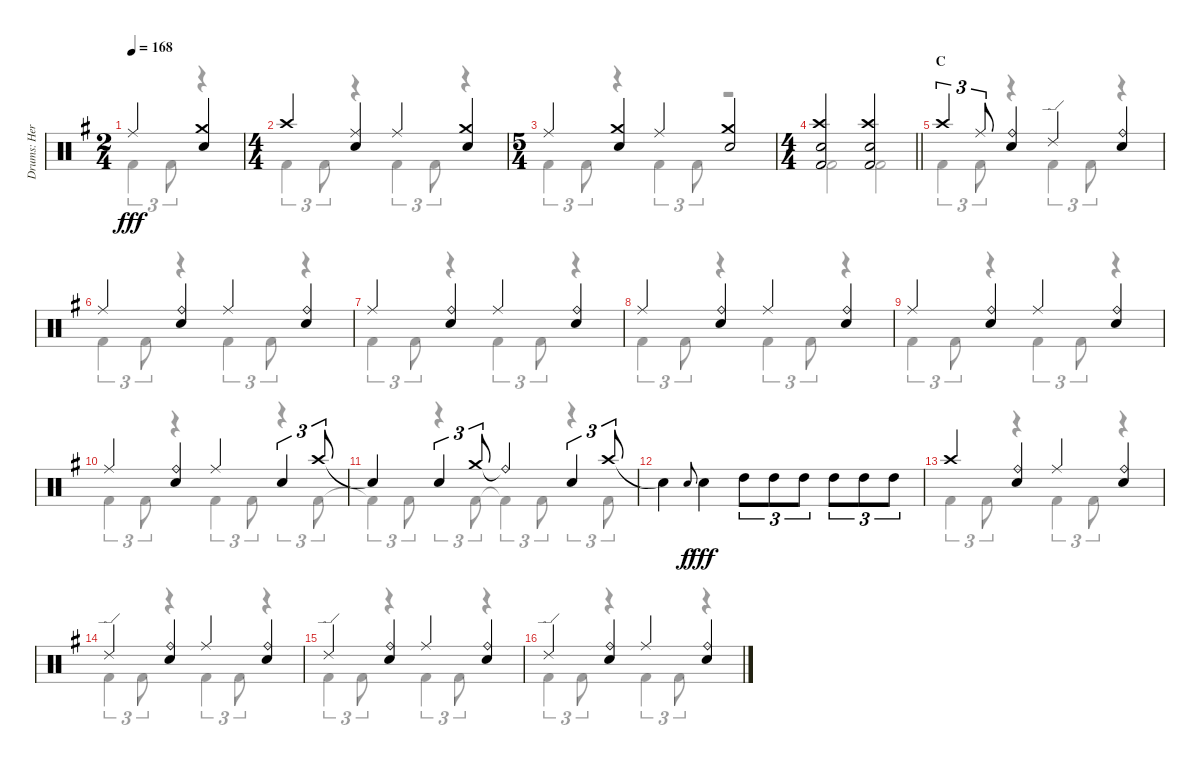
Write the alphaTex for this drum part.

\track ("Drums: Herman" "Drums: Her") {instrument percussion}
\staff {score}
\articulation defaults
\voice
\ts (2 4)
\tempo 168
\clef neutral
\ks g "Ride (middle)".4{dy fff}
("Crash medium (hit)" "Snare (hit) 2").4 |
\ts (4 4)
"Crash high (hit)".4 ("Ride (middle)" "Snare (hit) 2").4 "Ride (middle)".4 ("Crash medium (hit)" "Snare (hit) 2").4 |
\ts (5 4)
"Ride (middle)".4 ("Crash medium (hit)" "Snare (hit) 2").4 "Ride (middle)".4 ("Crash medium (hit)" "Snare (hit) 2").2 |
\ts (4 4)
\barLineRight lightlight
("Crash high (hit)" "Snare (hit) 2" "Kick (hit) 2").2 ("Crash high (hit)" "Snare (hit) 2" "Kick (hit) 2").2 |
\section ("" "C")
"Crash high (hit)".4{tu (3 2)} "Ride (middle)".8{tu (3 2)} ("Ride (bell)" "Snare (hit) 2").4 "Ride (edge) 2".4 ("Ride (bell)" "Snare (hit) 2").4 |
"Ride (middle)".4 ("Ride (bell)" "Snare (hit) 2").4 "Ride (middle)".4 ("Ride (bell)" "Snare (hit) 2").4 |
"Ride (middle)".4 ("Ride (bell)" "Snare (hit) 2").4 "Ride (middle)".4 ("Ride (bell)" "Snare (hit) 2").4 |
"Ride (middle)".4 ("Ride (bell)" "Snare (hit) 2").4 "Ride (middle)".4 ("Ride (bell)" "Snare (hit) 2").4 |
"Ride (middle)".4 ("Ride (bell)" "Snare (hit) 2").4 "Ride (middle)".4 ("Ride (bell)" "Snare (hit) 2").4 |
"Ride (middle)".4 ("Ride (bell)" "Snare (hit) 2").4 "Ride (middle)".4 "Snare (hit) 2".4{tu (3 2)} "Crash high (hit)".8{tu (3 2)} |
"Snare (hit)"{t}.4 "Snare (hit) 2".4{tu (3 2)} "Crash medium (hit)".8{tu (3 2)} "Ride (bell)"{t}.4 "Snare (hit) 2".4{tu (3 2)} "Crash high (hit)".8{tu (3 2)} |
"Snare (hit)"{t}.4 "Electric Snare (hit)".8{gr onbeat dy f} "Snare (hit) 2".4{dy fff} "High Tom (hit)".8{tu (3 2)} "High Tom (hit)".8{tu (3 2)} "High Tom (hit)".8{tu (3 2)} "High Tom (hit)".8{tu (3 2)} "High Tom (hit)".8{tu (3 2)} "High Tom (hit)".8{tu (3 2)} |
"Crash high (hit)".4 ("Ride (bell)" "Snare (hit) 2").4 "Ride (middle)".4 ("Ride (bell)" "Snare (hit) 2").4 |
"Ride (edge) 2".4 ("Ride (bell)" "Snare (hit) 2").4 "Ride (middle)".4 ("Ride (bell)" "Snare (hit) 2").4 |
"Ride (edge) 2".4 ("Ride (bell)" "Snare (hit) 2").4 "Ride (middle)".4 ("Ride (bell)" "Snare (hit) 2").4 |
"Ride (edge) 2".4 ("Ride (bell)" "Snare (hit) 2").4 "Ride (middle)".4 ("Ride (bell)" "Snare (hit) 2").4
\voice
\clef neutral
\ottava regular
\simile none
\ks g "Kick (hit) 2".4{tu (3 2) dy fff} "Kick (hit) 2".8{tu (3 2)}
r.4 |
"Kick (hit) 2".4{tu (3 2)} "Kick (hit) 2".8{tu (3 2)} r.4 "Kick (hit) 2".4{tu (3 2)} "Kick (hit) 2".8{tu (3 2)} r.4 |
"Kick (hit) 2".4{tu (3 2)} "Kick (hit) 2".8{tu (3 2)} r.4 "Kick (hit) 2".4{tu (3 2)} "Kick (hit) 2".8{tu (3 2)} r.2 |
\barLineRight lightlight "Kick (hit) 2".2 "Kick (hit) 2".2
|
"Kick (hit) 2".4{tu (3 2)} "Kick (hit) 2".8{tu (3 2)} r.4 "Kick (hit) 2".4{tu (3 2)} "Kick (hit) 2".8{tu (3 2)} r.4 |
"Kick (hit) 2".4{tu (3 2)} "Kick (hit) 2".8{tu (3 2)} r.4 "Kick (hit) 2".4{tu (3 2)} "Kick (hit) 2".8{tu (3 2)} r.4 |
"Kick (hit) 2".4{tu (3 2)} "Kick (hit) 2".8{tu (3 2)} r.4 "Kick (hit) 2".4{tu (3 2)} "Kick (hit) 2".8{tu (3 2)} r.4 |
"Kick (hit) 2".4{tu (3 2)} "Kick (hit) 2".8{tu (3 2)} r.4 "Kick (hit) 2".4{tu (3 2)} "Kick (hit) 2".8{tu (3 2)} r.4 |
"Kick (hit) 2".4{tu (3 2)} "Kick (hit) 2".8{tu (3 2)} r.4 "Kick (hit) 2".4{tu (3 2)} "Kick (hit) 2".8{tu (3 2)} r.4 |
"Kick (hit) 2".4{tu (3 2)} "Kick (hit) 2".8{tu (3 2)} r.4 "Kick (hit) 2".4{tu (3 2)} "Kick (hit) 2".8{tu (3 2)} r.4{tu (3 2)} "Kick (hit) 2".8{tu (3 2)} |
"Kick (hit) 2"{t}.4{tu (3 2)} "Kick (hit) 2".8{tu (3 2)} r.4{tu (3 2)} "Kick (hit) 2".8{tu (3 2)} "Kick (hit) 2"{t}.4{tu (3 2)} "Kick (hit) 2".8{tu (3 2)} r.4{tu (3 2)} "Kick (hit) 2".8{tu (3 2)} |
|
"Kick (hit) 2".4{tu (3 2)} "Kick (hit) 2".8{tu (3 2)} r.4 "Kick (hit) 2".4{tu (3 2)} "Kick (hit) 2".8{tu (3 2)} r.4 |
"Kick (hit) 2".4{tu (3 2)} "Kick (hit) 2".8{tu (3 2)} r.4 "Kick (hit) 2".4{tu (3 2)} "Kick (hit) 2".8{tu (3 2)} r.4 |
"Kick (hit) 2".4{tu (3 2)} "Kick (hit) 2".8{tu (3 2)} r.4 "Kick (hit) 2".4{tu (3 2)} "Kick (hit) 2".8{tu (3 2)} r.4 |
"Kick (hit) 2".4{tu (3 2)} "Kick (hit) 2".8{tu (3 2)} r.4 "Kick (hit) 2".4{tu (3 2)} "Kick (hit) 2".8{tu (3 2)} r.4
